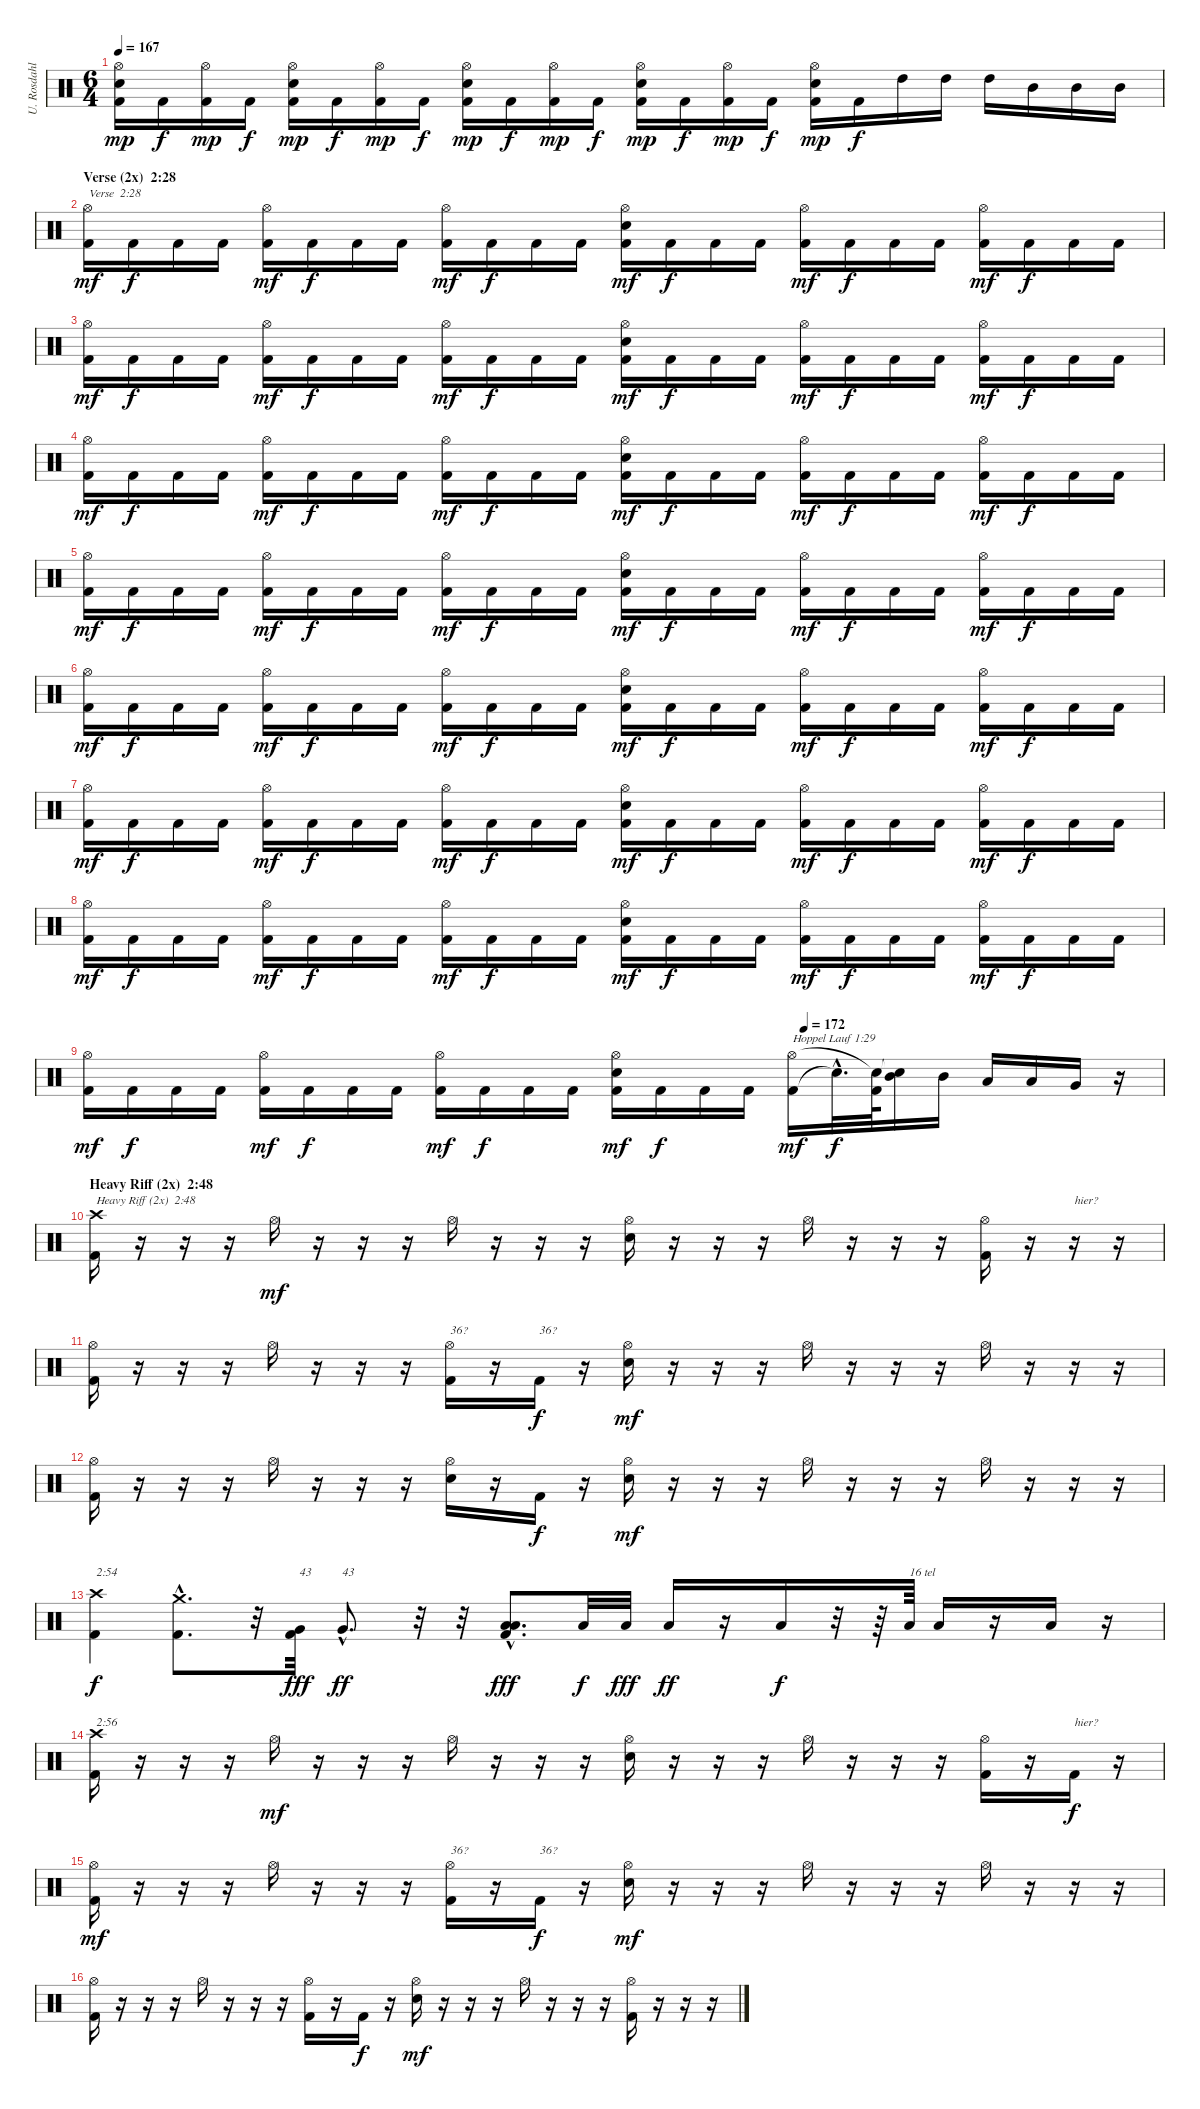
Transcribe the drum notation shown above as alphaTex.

\track ("U. Rosdahl" "U. Rosdahl") {instrument percussion}
\staff {score}
\articulation defaults
\ts (6 4)
\tempo 167
\clef neutral
\ks c
("Kick (hit) 2" "Electric Snare (hit)" "Hi-Hat (open)").16{dy mp} "Kick (hit) 2".16{dy f} ("Kick (hit) 2" "Hi-Hat (open)").16{dy mp} "Kick (hit) 2".16{dy f} ("Kick (hit) 2" "Electric Snare (hit)" "Hi-Hat (open)").16{dy mp} "Kick (hit) 2".16{dy f} ("Kick (hit) 2" "Hi-Hat (open)").16{dy mp} "Kick (hit) 2".16{dy f} ("Kick (hit) 2" "Electric Snare (hit)" "Hi-Hat (open)").16{dy mp} "Kick (hit) 2".16{dy f} ("Kick (hit) 2" "Hi-Hat (open)").16{dy mp} "Kick (hit) 2".16{dy f} ("Kick (hit) 2" "Electric Snare (hit)" "Hi-Hat (open)").16{dy mp} "Kick (hit) 2".16{dy f} ("Kick (hit) 2" "Hi-Hat (open)").16{dy mp} "Kick (hit) 2".16{dy f} ("Kick (hit) 2" "Electric Snare (hit)" "Hi-Hat (open)").16{dy mp} "Kick (hit) 2".16{dy f} "High Tom (hit)".16 "High Tom (hit)".16 "High Tom (hit)".16 "Mid Tom (hit)".16 "Mid Tom (hit)".16 "Mid Tom (hit)".16 |
\section ("" "Verse (2x)  2:28")
("Kick (hit) 2" "Hi-Hat (open)").16{txt "Verse  2:28" dy mf} "Kick (hit) 2".16{dy f} "Kick (hit) 2".16 "Kick (hit) 2".16 ("Kick (hit) 2" "Hi-Hat (open)").16{dy mf} "Kick (hit) 2".16{dy f} "Kick (hit) 2".16 "Kick (hit) 2".16 ("Kick (hit) 2" "Hi-Hat (open)").16{dy mf} "Kick (hit) 2".16{dy f} "Kick (hit) 2".16 "Kick (hit) 2".16 ("Kick (hit) 2" "Electric Snare (hit)" "Hi-Hat (open)").16{dy mf} "Kick (hit) 2".16{dy f} "Kick (hit) 2".16 "Kick (hit) 2".16 ("Kick (hit) 2" "Hi-Hat (open)").16{dy mf} "Kick (hit) 2".16{dy f} "Kick (hit) 2".16 "Kick (hit) 2".16 ("Kick (hit) 2" "Hi-Hat (open)").16{dy mf} "Kick (hit) 2".16{dy f} "Kick (hit) 2".16 "Kick (hit) 2".16 |
("Kick (hit) 2" "Hi-Hat (open)").16{dy mf} "Kick (hit) 2".16{dy f} "Kick (hit) 2".16 "Kick (hit) 2".16 ("Kick (hit) 2" "Hi-Hat (open)").16{dy mf} "Kick (hit) 2".16{dy f} "Kick (hit) 2".16 "Kick (hit) 2".16 ("Kick (hit) 2" "Hi-Hat (open)").16{dy mf} "Kick (hit) 2".16{dy f} "Kick (hit) 2".16 "Kick (hit) 2".16 ("Kick (hit) 2" "Electric Snare (hit)" "Hi-Hat (open)").16{dy mf} "Kick (hit) 2".16{dy f} "Kick (hit) 2".16 "Kick (hit) 2".16 ("Kick (hit) 2" "Hi-Hat (open)").16{dy mf} "Kick (hit) 2".16{dy f} "Kick (hit) 2".16 "Kick (hit) 2".16 ("Kick (hit) 2" "Hi-Hat (open)").16{dy mf} "Kick (hit) 2".16{dy f} "Kick (hit) 2".16 "Kick (hit) 2".16 |
("Kick (hit) 2" "Hi-Hat (open)").16{dy mf} "Kick (hit) 2".16{dy f} "Kick (hit) 2".16 "Kick (hit) 2".16 ("Kick (hit) 2" "Hi-Hat (open)").16{dy mf} "Kick (hit) 2".16{dy f} "Kick (hit) 2".16 "Kick (hit) 2".16 ("Kick (hit) 2" "Hi-Hat (open)").16{dy mf} "Kick (hit) 2".16{dy f} "Kick (hit) 2".16 "Kick (hit) 2".16 ("Kick (hit) 2" "Electric Snare (hit)" "Hi-Hat (open)").16{dy mf} "Kick (hit) 2".16{dy f} "Kick (hit) 2".16 "Kick (hit) 2".16 ("Kick (hit) 2" "Hi-Hat (open)").16{dy mf} "Kick (hit) 2".16{dy f} "Kick (hit) 2".16 "Kick (hit) 2".16 ("Kick (hit) 2" "Hi-Hat (open)").16{dy mf} "Kick (hit) 2".16{dy f} "Kick (hit) 2".16 "Kick (hit) 2".16 |
("Kick (hit) 2" "Hi-Hat (open)").16{dy mf} "Kick (hit) 2".16{dy f} "Kick (hit) 2".16 "Kick (hit) 2".16 ("Kick (hit) 2" "Hi-Hat (open)").16{dy mf} "Kick (hit) 2".16{dy f} "Kick (hit) 2".16 "Kick (hit) 2".16 ("Kick (hit) 2" "Hi-Hat (open)").16{dy mf} "Kick (hit) 2".16{dy f} "Kick (hit) 2".16 "Kick (hit) 2".16 ("Kick (hit) 2" "Electric Snare (hit)" "Hi-Hat (open)").16{dy mf} "Kick (hit) 2".16{dy f} "Kick (hit) 2".16 "Kick (hit) 2".16 ("Kick (hit) 2" "Hi-Hat (open)").16{dy mf} "Kick (hit) 2".16{dy f} "Kick (hit) 2".16 "Kick (hit) 2".16 ("Kick (hit) 2" "Hi-Hat (open)").16{dy mf} "Kick (hit) 2".16{dy f} "Kick (hit) 2".16 "Kick (hit) 2".16 |
("Kick (hit) 2" "Hi-Hat (open)").16{dy mf} "Kick (hit) 2".16{dy f} "Kick (hit) 2".16 "Kick (hit) 2".16 ("Kick (hit) 2" "Hi-Hat (open)").16{dy mf} "Kick (hit) 2".16{dy f} "Kick (hit) 2".16 "Kick (hit) 2".16 ("Kick (hit) 2" "Hi-Hat (open)").16{dy mf} "Kick (hit) 2".16{dy f} "Kick (hit) 2".16 "Kick (hit) 2".16 ("Kick (hit) 2" "Electric Snare (hit)" "Hi-Hat (open)").16{dy mf} "Kick (hit) 2".16{dy f} "Kick (hit) 2".16 "Kick (hit) 2".16 ("Kick (hit) 2" "Hi-Hat (open)").16{dy mf} "Kick (hit) 2".16{dy f} "Kick (hit) 2".16 "Kick (hit) 2".16 ("Kick (hit) 2" "Hi-Hat (open)").16{dy mf} "Kick (hit) 2".16{dy f} "Kick (hit) 2".16 "Kick (hit) 2".16 |
("Kick (hit) 2" "Hi-Hat (open)").16{dy mf} "Kick (hit) 2".16{dy f} "Kick (hit) 2".16 "Kick (hit) 2".16 ("Kick (hit) 2" "Hi-Hat (open)").16{dy mf} "Kick (hit) 2".16{dy f} "Kick (hit) 2".16 "Kick (hit) 2".16 ("Kick (hit) 2" "Hi-Hat (open)").16{dy mf} "Kick (hit) 2".16{dy f} "Kick (hit) 2".16 "Kick (hit) 2".16 ("Kick (hit) 2" "Electric Snare (hit)" "Hi-Hat (open)").16{dy mf} "Kick (hit) 2".16{dy f} "Kick (hit) 2".16 "Kick (hit) 2".16 ("Kick (hit) 2" "Hi-Hat (open)").16{dy mf} "Kick (hit) 2".16{dy f} "Kick (hit) 2".16 "Kick (hit) 2".16 ("Kick (hit) 2" "Hi-Hat (open)").16{dy mf} "Kick (hit) 2".16{dy f} "Kick (hit) 2".16 "Kick (hit) 2".16 |
("Kick (hit) 2" "Hi-Hat (open)").16{dy mf} "Kick (hit) 2".16{dy f} "Kick (hit) 2".16 "Kick (hit) 2".16 ("Kick (hit) 2" "Hi-Hat (open)").16{dy mf} "Kick (hit) 2".16{dy f} "Kick (hit) 2".16 "Kick (hit) 2".16 ("Kick (hit) 2" "Hi-Hat (open)").16{dy mf} "Kick (hit) 2".16{dy f} "Kick (hit) 2".16 "Kick (hit) 2".16 ("Kick (hit) 2" "Electric Snare (hit)" "Hi-Hat (open)").16{dy mf} "Kick (hit) 2".16{dy f} "Kick (hit) 2".16 "Kick (hit) 2".16 ("Kick (hit) 2" "Hi-Hat (open)").16{dy mf} "Kick (hit) 2".16{dy f} "Kick (hit) 2".16 "Kick (hit) 2".16 ("Kick (hit) 2" "Hi-Hat (open)").16{dy mf} "Kick (hit) 2".16{dy f} "Kick (hit) 2".16 "Kick (hit) 2".16 |
\tempo (172 0.6666666666666666)
("Kick (hit) 2" "Hi-Hat (open)").16{dy mf} "Kick (hit) 2".16{dy f} "Kick (hit) 2".16 "Kick (hit) 2".16 ("Kick (hit) 2" "Hi-Hat (open)").16{dy mf} "Kick (hit) 2".16{dy f} "Kick (hit) 2".16 "Kick (hit) 2".16 ("Kick (hit) 2" "Hi-Hat (open)").16{dy mf} "Kick (hit) 2".16{dy f} "Kick (hit) 2".16 "Kick (hit) 2".16 ("Kick (hit) 2" "Electric Snare (hit)" "Hi-Hat (open)").16{dy mf} "Kick (hit) 2".16{dy f} "Kick (hit) 2".16 "Kick (hit) 2".16 ("Kick (hit) 2" "Hi-Hat (open)").16{txt "Hoppel Lauf 1:29" dy mf} "Snare (hit)"{hac t}.32{d dy f} ("Kick (hit) 2" "Snare (hit)"{t}).64 ("Mid Tom (hit)" "Snare (hit)"{t}).16 "Mid Tom (hit)".16 "Low Tom (hit)".16 "Low Tom (hit)".16 "Very Low Tom (hit)".16 r.16 |
\section ("" "Heavy Riff (2x)  2:48")
("Kick (hit) 2" "Crash high (hit)").16{txt "Heavy Riff (2x)  2:48"} r.16 r.16 r.16 "Hi-Hat (open)".16{dy mf} r.16 r.16 r.16 "Hi-Hat (open)".16 r.16 r.16 r.16 ("Electric Snare (hit)" "Hi-Hat (open)").16 r.16 r.16 r.16 "Hi-Hat (open)".16 r.16 r.16 r.16 ("Kick (hit) 2" "Hi-Hat (open)").16 r.16 r.16{txt "hier?"} r.16 |
("Kick (hit) 2" "Hi-Hat (open)").16 r.16 r.16 r.16 "Hi-Hat (open)".16 r.16 r.16 r.16 ("Kick (hit) 2" "Hi-Hat (open)").16{txt "36?"} r.16 "Kick (hit) 2".16{txt "36?" dy f} r.16 ("Electric Snare (hit)" "Hi-Hat (open)").16{dy mf} r.16 r.16 r.16 "Hi-Hat (open)".16 r.16 r.16 r.16 "Hi-Hat (open)".16 r.16 r.16 r.16 |
("Kick (hit) 2" "Hi-Hat (open)").16 r.16 r.16 r.16 "Hi-Hat (open)".16 r.16 r.16 r.16 ("Electric Snare (hit)" "Hi-Hat (open)").16 r.16 "Kick (hit) 2".16{dy f} r.16 ("Electric Snare (hit)" "Hi-Hat (open)").16{dy mf} r.16 r.16 r.16 "Hi-Hat (open)".16 r.16 r.16 r.16 "Hi-Hat (open)".16 r.16 r.16 r.16 |
("Kick (hit) 2" "Crash high (hit)").4{txt "2:54" dy f} ("Kick (hit) 2"{hac} "Crash medium (hit)"{hac}).8{d} r.32 ("Kick (hit) 2" "Very Low Tom (hit)").32{txt "43" dy fff} "Very Low Tom (hit)"{hac}.8{d txt "43" dy ff} r.32 r.32 ("Kick (hit) 2"{hac} "Low Tom (hit)"{hac} "Low Tom (hit)"{hac}).8{d dy fff} "Low Tom (hit)".32{dy f} "Low Tom (hit)".32{dy fff} "Low Tom (hit)".16{dy ff} r.16 "Low Tom (hit)".16{dy f} r.32 r.64 "Low Tom (hit)".64{txt "16 tel"} "Low Tom (hit)".16 r.16 "Low Tom (hit)".16 r.16 |
("Kick (hit) 2" "Crash high (hit)").16{txt "2:56"} r.16 r.16 r.16 "Hi-Hat (open)".16{dy mf} r.16 r.16 r.16 "Hi-Hat (open)".16 r.16 r.16 r.16 ("Electric Snare (hit)" "Hi-Hat (open)").16 r.16 r.16 r.16 "Hi-Hat (open)".16 r.16 r.16 r.16 ("Kick (hit) 2" "Hi-Hat (open)").16 r.16 "Kick (hit) 2".16{txt "hier?" dy f} r.16 |
("Kick (hit) 2" "Hi-Hat (open)").16{dy mf} r.16 r.16 r.16 "Hi-Hat (open)".16 r.16 r.16 r.16 ("Kick (hit) 2" "Hi-Hat (open)").16{txt "36?"} r.16 "Kick (hit) 2".16{txt "36?" dy f} r.16 ("Electric Snare (hit)" "Hi-Hat (open)").16{dy mf} r.16 r.16 r.16 "Hi-Hat (open)".16 r.16 r.16 r.16 "Hi-Hat (open)".16 r.16 r.16 r.16 |
("Kick (hit) 2" "Hi-Hat (open)").16 r.16 r.16 r.16 "Hi-Hat (open)".16 r.16 r.16 r.16 ("Kick (hit) 2" "Hi-Hat (open)").16 r.16 "Kick (hit) 2".16{dy f} r.16 ("Electric Snare (hit)" "Hi-Hat (open)").16{dy mf} r.16 r.16 r.16 "Hi-Hat (open)".16 r.16 r.16 r.16 ("Kick (hit) 2" "Hi-Hat (open)").16 r.16 r.16 r.16
